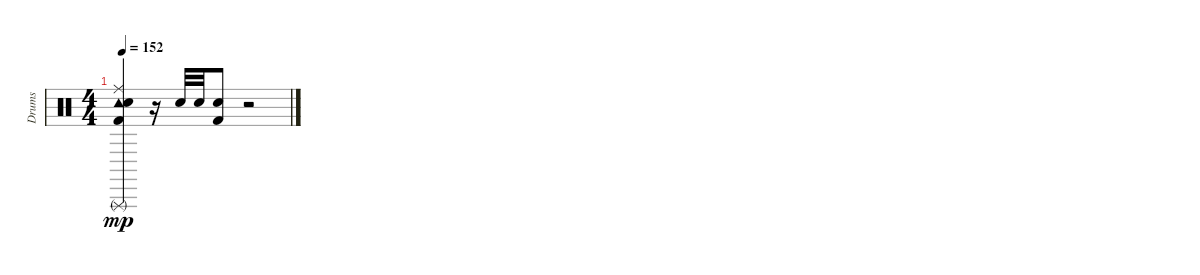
\track ("Drums" "Drums") {instrument percussion}
\staff {score}
\articulation defaults
\ts (4 4)
\tempo 152
\clef neutral
\ks c
("Triangle (rnute)" "Tambourine (hit)" "Ride (middle)" "Kick (hit) 2" "Snare (hit) 2").4{dy mp volume 2} r.16 "Snare (hit) 2".32{volume 1} "Snare (hit) 2".32 ("Kick (hit) 2" "Snare (hit) 2").8{volume 0} r.2
